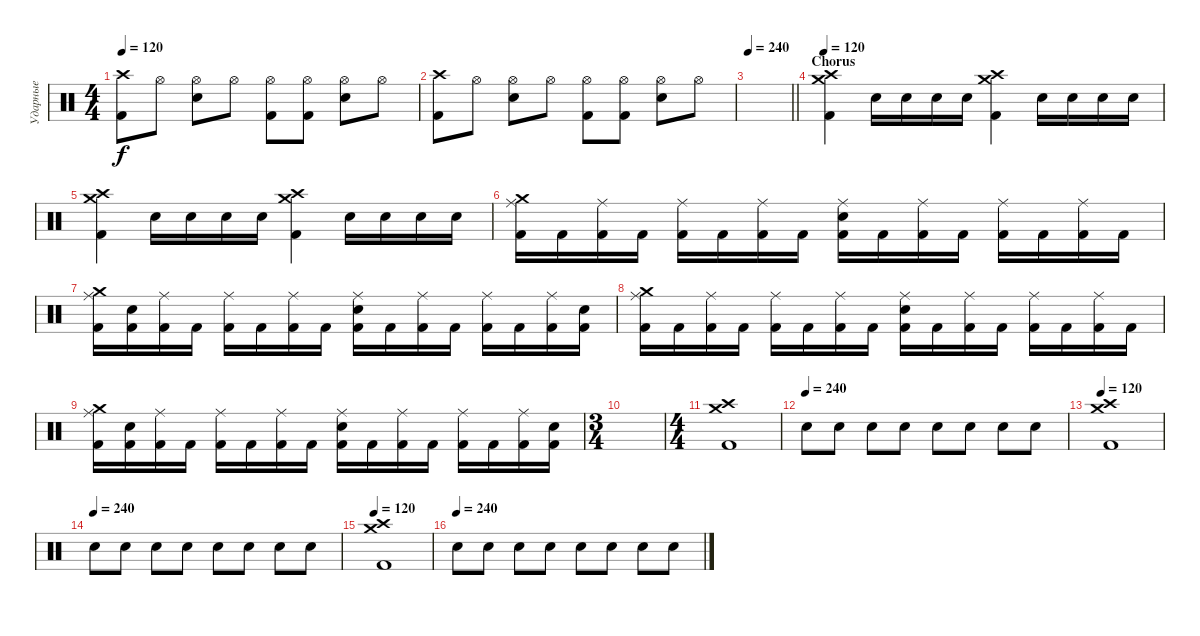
\track ("Ударные" "Ударные") {instrument percussion}
\staff {score}
\articulation defaults
\ts (4 4)
\tempo 120
\clef neutral
\ks c
("Kick (hit) 2" "Crash high (hit)").8{dy f} "Hi-Hat (open)".8 ("Electric Snare (hit)" "Hi-Hat (open)").8 "Hi-Hat (open)".8 ("Kick (hit) 2" "Hi-Hat (open)").8 ("Kick (hit) 2" "Hi-Hat (open)").8 ("Electric Snare (hit)" "Hi-Hat (open)").8 "Hi-Hat (open)".8 |
("Kick (hit) 2" "Crash high (hit)").8 "Hi-Hat (open)".8 ("Electric Snare (hit)" "Hi-Hat (open)").8 "Hi-Hat (open)".8 ("Kick (hit) 2" "Hi-Hat (open)").8 ("Kick (hit) 2" "Hi-Hat (open)").8 ("Electric Snare (hit)" "Hi-Hat (open)").8 "Hi-Hat (open)".8 |
\tempo 240
\barLineRight lightlight
|
\section ("" "Chorus")
\tempo 120
("Kick (hit) 2" "Crash high (hit)" "Crash medium (hit)").4 "Electric Snare (hit)".16 "Electric Snare (hit)".16 "Electric Snare (hit)".16 "Electric Snare (hit)".16 ("Kick (hit) 2" "Crash high (hit)" "Crash medium (hit)").4 "Electric Snare (hit)".16 "Electric Snare (hit)".16 "Electric Snare (hit)".16 "Electric Snare (hit)".16 |
("Kick (hit) 2" "Crash high (hit)" "Crash medium (hit)").4 "Electric Snare (hit)".16 "Electric Snare (hit)".16 "Electric Snare (hit)".16 "Electric Snare (hit)".16 ("Kick (hit) 2" "Crash high (hit)" "Crash medium (hit)").4 "Electric Snare (hit)".16 "Electric Snare (hit)".16 "Electric Snare (hit)".16 "Electric Snare (hit)".16 |
("Kick (hit) 2" "Crash medium (hit)" "Ride (middle)").16 "Kick (hit) 2".16 ("Kick (hit) 2" "Ride (middle)").16 "Kick (hit) 2".16 ("Kick (hit) 2" "Ride (middle)").16 "Kick (hit) 2".16 ("Kick (hit) 2" "Ride (middle)").16 "Kick (hit) 2".16 ("Kick (hit) 2" "Ride (middle)" "Electric Snare (hit)").16 "Kick (hit) 2".16 ("Kick (hit) 2" "Ride (middle)").16 "Kick (hit) 2".16 ("Kick (hit) 2" "Ride (middle)").16 "Kick (hit) 2".16 ("Kick (hit) 2" "Ride (middle)").16 "Kick (hit) 2".16 |
("Kick (hit) 2" "Ride (middle)" "Crash medium (hit)").16 ("Kick (hit) 2" "Electric Snare (hit)").16 ("Kick (hit) 2" "Ride (middle)").16 "Kick (hit) 2".16 ("Kick (hit) 2" "Ride (middle)").16 "Kick (hit) 2".16 ("Kick (hit) 2" "Ride (middle)").16 "Kick (hit) 2".16 ("Kick (hit) 2" "Ride (middle)" "Electric Snare (hit)").16 "Kick (hit) 2".16 ("Kick (hit) 2" "Ride (middle)").16 "Kick (hit) 2".16 ("Kick (hit) 2" "Ride (middle)").16 "Kick (hit) 2".16 ("Kick (hit) 2" "Ride (middle)").16 ("Kick (hit) 2" "Electric Snare (hit)").16 |
("Kick (hit) 2" "Crash medium (hit)" "Ride (middle)").16 "Kick (hit) 2".16 ("Kick (hit) 2" "Ride (middle)").16 "Kick (hit) 2".16 ("Kick (hit) 2" "Ride (middle)").16 "Kick (hit) 2".16 ("Kick (hit) 2" "Ride (middle)").16 "Kick (hit) 2".16 ("Kick (hit) 2" "Ride (middle)" "Electric Snare (hit)").16 "Kick (hit) 2".16 ("Kick (hit) 2" "Ride (middle)").16 "Kick (hit) 2".16 ("Kick (hit) 2" "Ride (middle)").16 "Kick (hit) 2".16 ("Kick (hit) 2" "Ride (middle)").16 "Kick (hit) 2".16 |
("Kick (hit) 2" "Ride (middle)" "Crash medium (hit)").16 ("Kick (hit) 2" "Electric Snare (hit)").16 ("Kick (hit) 2" "Ride (middle)").16 "Kick (hit) 2".16 ("Kick (hit) 2" "Ride (middle)").16 "Kick (hit) 2".16 ("Kick (hit) 2" "Ride (middle)").16 "Kick (hit) 2".16 ("Kick (hit) 2" "Ride (middle)" "Electric Snare (hit)").16 "Kick (hit) 2".16 ("Kick (hit) 2" "Ride (middle)").16 "Kick (hit) 2".16 ("Kick (hit) 2" "Ride (middle)").16 "Kick (hit) 2".16 ("Kick (hit) 2" "Ride (middle)").16 ("Kick (hit) 2" "Electric Snare (hit)").16 |
\ts (3 4)
|
\ts (4 4)
("Kick (hit) 2" "Crash high (hit)" "Crash medium (hit)").1 |
\tempo (240)
"Electric Snare (hit)".8 "Electric Snare (hit)".8 "Electric Snare (hit)".8 "Electric Snare (hit)".8 "Electric Snare (hit)".8 "Electric Snare (hit)".8 "Electric Snare (hit)".8 "Electric Snare (hit)".8 |
\tempo 120
("Kick (hit) 2" "Crash high (hit)" "Crash medium (hit)").1 |
\tempo (240)
"Electric Snare (hit)".8 "Electric Snare (hit)".8 "Electric Snare (hit)".8 "Electric Snare (hit)".8 "Electric Snare (hit)".8 "Electric Snare (hit)".8 "Electric Snare (hit)".8 "Electric Snare (hit)".8 |
\tempo 120
("Kick (hit) 2" "Crash high (hit)" "Crash medium (hit)").1 |
\tempo (240)
"Electric Snare (hit)".8 "Electric Snare (hit)".8 "Electric Snare (hit)".8 "Electric Snare (hit)".8 "Electric Snare (hit)".8 "Electric Snare (hit)".8 "Electric Snare (hit)".8 "Electric Snare (hit)".8
